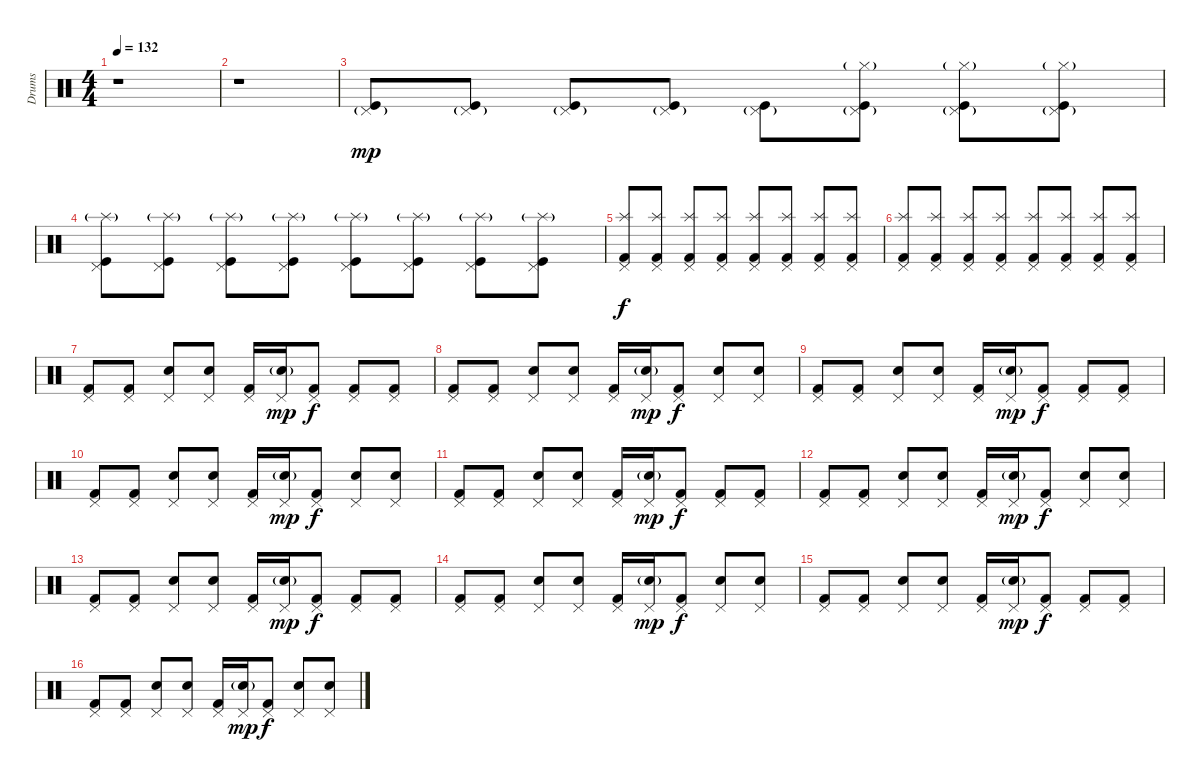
\track ("Drums" "Drums") {instrument percussion}
\staff {score}
\articulation defaults
\ts (4 4)
\tempo 132
\clef neutral
\ks c
r.1{dy f} |
r.1 |
("Pedal Hi-Hat (hit)"{g} "Kick (hit)").8{dy mp} ("Pedal Hi-Hat (hit)"{g} "Kick (hit)").8 ("Pedal Hi-Hat (hit)"{g} "Kick (hit)").8 ("Pedal Hi-Hat (hit)"{g} "Kick (hit)").8 ("Pedal Hi-Hat (hit)"{g} "Kick (hit)").8 ("Pedal Hi-Hat (hit)"{g} "Kick (hit)" "Hi-Hat (closed)"{g}).8 ("Pedal Hi-Hat (hit)"{g} "Kick (hit)" "Hi-Hat (closed)"{g}).8 ("Pedal Hi-Hat (hit)"{g} "Kick (hit)" "Hi-Hat (closed)"{g}).8 |
("Pedal Hi-Hat (hit)" "Kick (hit)" "Splash (hit)"{g}).8 ("Pedal Hi-Hat (hit)" "Kick (hit)" "Splash (hit)"{g}).8 ("Pedal Hi-Hat (hit)" "Kick (hit)" "Splash (hit)"{g}).8 ("Pedal Hi-Hat (hit)" "Kick (hit)" "Splash (hit)"{g}).8 ("Pedal Hi-Hat (hit)" "Kick (hit)" "Splash (hit)"{g}).8 ("Pedal Hi-Hat (hit)" "Kick (hit)" "Splash (hit)"{g}).8 ("Pedal Hi-Hat (hit)" "Kick (hit)" "Splash (hit)"{g}).8 ("Pedal Hi-Hat (hit)" "Kick (hit)" "Splash (hit)"{g}).8 |
("Pedal Hi-Hat (hit)" "Kick (hit) 2" "Splash (hit)").8{dy f} ("Pedal Hi-Hat (hit)" "Kick (hit) 2" "Splash (hit)").8 ("Pedal Hi-Hat (hit)" "Kick (hit) 2" "Splash (hit)").8 ("Pedal Hi-Hat (hit)" "Kick (hit) 2" "Splash (hit)").8 ("Pedal Hi-Hat (hit)" "Kick (hit) 2" "Splash (hit)").8 ("Pedal Hi-Hat (hit)" "Kick (hit) 2" "Splash (hit)").8 ("Pedal Hi-Hat (hit)" "Kick (hit) 2" "Splash (hit)").8 ("Pedal Hi-Hat (hit)" "Kick (hit) 2" "Splash (hit)").8 |
("Pedal Hi-Hat (hit)" "Kick (hit) 2" "Splash (hit)").8 ("Pedal Hi-Hat (hit)" "Kick (hit) 2" "Splash (hit)").8 ("Pedal Hi-Hat (hit)" "Kick (hit) 2" "Splash (hit)").8 ("Pedal Hi-Hat (hit)" "Kick (hit) 2" "Splash (hit)").8 ("Pedal Hi-Hat (hit)" "Kick (hit) 2" "Splash (hit)").8 ("Pedal Hi-Hat (hit)" "Kick (hit) 2" "Splash (hit)").8 ("Pedal Hi-Hat (hit)" "Kick (hit) 2" "Splash (hit)").8 ("Pedal Hi-Hat (hit)" "Kick (hit) 2" "Splash (hit)").8 |
("Pedal Hi-Hat (hit)" "Kick (hit) 2").8 ("Pedal Hi-Hat (hit)" "Kick (hit) 2").8 ("Pedal Hi-Hat (hit)" "Electric Snare (hit)").8 ("Pedal Hi-Hat (hit)" "Electric Snare (hit)").8 ("Pedal Hi-Hat (hit)" "Kick (hit) 2").16 ("Pedal Hi-Hat (hit)" "Electric Snare (hit)"{g}).16{dy mp} ("Pedal Hi-Hat (hit)" "Kick (hit) 2").8{dy f} ("Pedal Hi-Hat (hit)" "Kick (hit) 2").8 ("Pedal Hi-Hat (hit)" "Kick (hit) 2").8 |
("Pedal Hi-Hat (hit)" "Kick (hit) 2").8 ("Pedal Hi-Hat (hit)" "Kick (hit) 2").8 ("Pedal Hi-Hat (hit)" "Electric Snare (hit)").8 ("Pedal Hi-Hat (hit)" "Electric Snare (hit)").8 ("Pedal Hi-Hat (hit)" "Kick (hit) 2").16 ("Pedal Hi-Hat (hit)" "Electric Snare (hit)"{g}).16{dy mp} ("Pedal Hi-Hat (hit)" "Kick (hit) 2").8{dy f} ("Pedal Hi-Hat (hit)" "Electric Snare (hit)").8 ("Pedal Hi-Hat (hit)" "Electric Snare (hit)").8 |
("Pedal Hi-Hat (hit)" "Kick (hit) 2").8 ("Pedal Hi-Hat (hit)" "Kick (hit) 2").8 ("Pedal Hi-Hat (hit)" "Electric Snare (hit)").8 ("Pedal Hi-Hat (hit)" "Electric Snare (hit)").8 ("Pedal Hi-Hat (hit)" "Kick (hit) 2").16 ("Pedal Hi-Hat (hit)" "Electric Snare (hit)"{g}).16{dy mp} ("Pedal Hi-Hat (hit)" "Kick (hit) 2").8{dy f} ("Pedal Hi-Hat (hit)" "Kick (hit) 2").8 ("Pedal Hi-Hat (hit)" "Kick (hit) 2").8 |
("Pedal Hi-Hat (hit)" "Kick (hit) 2").8 ("Pedal Hi-Hat (hit)" "Kick (hit) 2").8 ("Pedal Hi-Hat (hit)" "Electric Snare (hit)").8 ("Pedal Hi-Hat (hit)" "Electric Snare (hit)").8 ("Pedal Hi-Hat (hit)" "Kick (hit) 2").16 ("Pedal Hi-Hat (hit)" "Electric Snare (hit)"{g}).16{dy mp} ("Pedal Hi-Hat (hit)" "Kick (hit) 2").8{dy f} ("Pedal Hi-Hat (hit)" "Electric Snare (hit)").8 ("Pedal Hi-Hat (hit)" "Electric Snare (hit)").8 |
("Pedal Hi-Hat (hit)" "Kick (hit) 2").8 ("Pedal Hi-Hat (hit)" "Kick (hit) 2").8 ("Pedal Hi-Hat (hit)" "Electric Snare (hit)").8 ("Pedal Hi-Hat (hit)" "Electric Snare (hit)").8 ("Pedal Hi-Hat (hit)" "Kick (hit) 2").16 ("Pedal Hi-Hat (hit)" "Electric Snare (hit)"{g}).16{dy mp} ("Pedal Hi-Hat (hit)" "Kick (hit) 2").8{dy f} ("Pedal Hi-Hat (hit)" "Kick (hit) 2").8 ("Pedal Hi-Hat (hit)" "Kick (hit) 2").8 |
("Pedal Hi-Hat (hit)" "Kick (hit) 2").8 ("Pedal Hi-Hat (hit)" "Kick (hit) 2").8 ("Pedal Hi-Hat (hit)" "Electric Snare (hit)").8 ("Pedal Hi-Hat (hit)" "Electric Snare (hit)").8 ("Pedal Hi-Hat (hit)" "Kick (hit) 2").16 ("Pedal Hi-Hat (hit)" "Electric Snare (hit)"{g}).16{dy mp} ("Pedal Hi-Hat (hit)" "Kick (hit) 2").8{dy f} ("Pedal Hi-Hat (hit)" "Electric Snare (hit)").8 ("Pedal Hi-Hat (hit)" "Electric Snare (hit)").8 |
("Pedal Hi-Hat (hit)" "Kick (hit) 2").8 ("Pedal Hi-Hat (hit)" "Kick (hit) 2").8 ("Pedal Hi-Hat (hit)" "Electric Snare (hit)").8 ("Pedal Hi-Hat (hit)" "Electric Snare (hit)").8 ("Pedal Hi-Hat (hit)" "Kick (hit) 2").16 ("Pedal Hi-Hat (hit)" "Electric Snare (hit)"{g}).16{dy mp} ("Pedal Hi-Hat (hit)" "Kick (hit) 2").8{dy f} ("Pedal Hi-Hat (hit)" "Kick (hit) 2").8 ("Pedal Hi-Hat (hit)" "Kick (hit) 2").8 |
("Pedal Hi-Hat (hit)" "Kick (hit) 2").8 ("Pedal Hi-Hat (hit)" "Kick (hit) 2").8 ("Pedal Hi-Hat (hit)" "Electric Snare (hit)").8 ("Pedal Hi-Hat (hit)" "Electric Snare (hit)").8 ("Pedal Hi-Hat (hit)" "Kick (hit) 2").16 ("Pedal Hi-Hat (hit)" "Electric Snare (hit)"{g}).16{dy mp} ("Pedal Hi-Hat (hit)" "Kick (hit) 2").8{dy f} ("Pedal Hi-Hat (hit)" "Electric Snare (hit)").8 ("Pedal Hi-Hat (hit)" "Electric Snare (hit)").8 |
("Pedal Hi-Hat (hit)" "Kick (hit) 2").8 ("Pedal Hi-Hat (hit)" "Kick (hit) 2").8 ("Pedal Hi-Hat (hit)" "Electric Snare (hit)").8 ("Pedal Hi-Hat (hit)" "Electric Snare (hit)").8 ("Pedal Hi-Hat (hit)" "Kick (hit) 2").16 ("Pedal Hi-Hat (hit)" "Electric Snare (hit)"{g}).16{dy mp} ("Pedal Hi-Hat (hit)" "Kick (hit) 2").8{dy f} ("Pedal Hi-Hat (hit)" "Kick (hit) 2").8 ("Pedal Hi-Hat (hit)" "Kick (hit) 2").8 |
("Pedal Hi-Hat (hit)" "Kick (hit) 2").8 ("Pedal Hi-Hat (hit)" "Kick (hit) 2").8 ("Pedal Hi-Hat (hit)" "Electric Snare (hit)").8 ("Pedal Hi-Hat (hit)" "Electric Snare (hit)").8 ("Pedal Hi-Hat (hit)" "Kick (hit) 2").16 ("Pedal Hi-Hat (hit)" "Electric Snare (hit)"{g}).16{dy mp} ("Pedal Hi-Hat (hit)" "Kick (hit) 2").8{dy f} ("Pedal Hi-Hat (hit)" "Electric Snare (hit)").8 ("Pedal Hi-Hat (hit)" "Electric Snare (hit)").8
